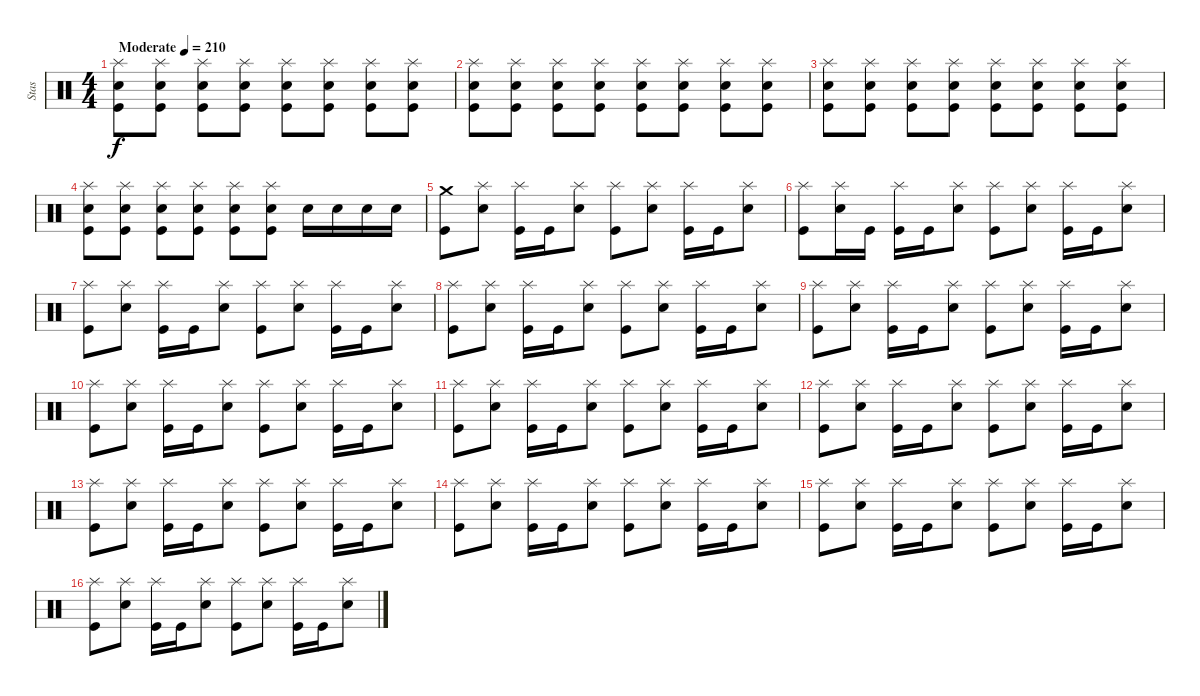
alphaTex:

\track ("Stas" "Stas") {instrument percussion}
\staff {score}
\articulation defaults
\ts (4 4)
\tempo (210 "Moderate")
\clef neutral
\ks c
("Kick (hit)" "Electric Snare (hit)" "Splash (hit)").8{dy f} ("Kick (hit)" "Electric Snare (hit)" "Splash (hit)").8 ("Kick (hit)" "Electric Snare (hit)" "Splash (hit)").8 ("Kick (hit)" "Electric Snare (hit)" "Splash (hit)").8 ("Kick (hit)" "Electric Snare (hit)" "Splash (hit)").8 ("Kick (hit)" "Electric Snare (hit)" "Splash (hit)").8 ("Kick (hit)" "Electric Snare (hit)" "Splash (hit)").8 ("Kick (hit)" "Electric Snare (hit)" "Splash (hit)").8 |
("Kick (hit)" "Electric Snare (hit)" "Splash (hit)").8 ("Kick (hit)" "Electric Snare (hit)" "Splash (hit)").8 ("Kick (hit)" "Electric Snare (hit)" "Splash (hit)").8 ("Kick (hit)" "Electric Snare (hit)" "Splash (hit)").8 ("Kick (hit)" "Electric Snare (hit)" "Splash (hit)").8 ("Kick (hit)" "Electric Snare (hit)" "Splash (hit)").8 ("Kick (hit)" "Electric Snare (hit)" "Splash (hit)").8 ("Kick (hit)" "Electric Snare (hit)" "Splash (hit)").8 |
("Kick (hit)" "Electric Snare (hit)" "Splash (hit)").8 ("Kick (hit)" "Electric Snare (hit)" "Splash (hit)").8 ("Kick (hit)" "Electric Snare (hit)" "Splash (hit)").8 ("Kick (hit)" "Electric Snare (hit)" "Splash (hit)").8 ("Kick (hit)" "Electric Snare (hit)" "Splash (hit)").8 ("Kick (hit)" "Electric Snare (hit)" "Splash (hit)").8 ("Kick (hit)" "Electric Snare (hit)" "Splash (hit)").8 ("Kick (hit)" "Electric Snare (hit)" "Splash (hit)").8 |
("Kick (hit)" "Electric Snare (hit)" "Splash (hit)").8 ("Kick (hit)" "Electric Snare (hit)" "Splash (hit)").8 ("Kick (hit)" "Electric Snare (hit)" "Splash (hit)").8 ("Kick (hit)" "Electric Snare (hit)" "Splash (hit)").8 ("Kick (hit)" "Electric Snare (hit)" "Splash (hit)").8 ("Kick (hit)" "Electric Snare (hit)" "Splash (hit)").8 "Electric Snare (hit)".16 "Electric Snare (hit)".16 "Electric Snare (hit)".16 "Electric Snare (hit)".16 |
("Crash medium (hit)" "Kick (hit)").8 ("Splash (hit)" "Electric Snare (hit)").8 ("Splash (hit)" "Kick (hit)").16 "Kick (hit)".16 ("Splash (hit)" "Electric Snare (hit)").8 ("Splash (hit)" "Kick (hit)").8 ("Splash (hit)" "Electric Snare (hit)").8 ("Splash (hit)" "Kick (hit)").16 "Kick (hit)".16 ("Splash (hit)" "Electric Snare (hit)").8 |
("Splash (hit)" "Kick (hit)").8 ("Splash (hit)" "Electric Snare (hit)").16 "Kick (hit)".16 ("Splash (hit)" "Kick (hit)").16 "Kick (hit)".16 ("Splash (hit)" "Electric Snare (hit)").8 ("Splash (hit)" "Kick (hit)").8 ("Splash (hit)" "Electric Snare (hit)").8 ("Splash (hit)" "Kick (hit)").16 "Kick (hit)".16 ("Splash (hit)" "Electric Snare (hit)").8 |
("Splash (hit)" "Kick (hit)").8 ("Splash (hit)" "Electric Snare (hit)").8 ("Splash (hit)" "Kick (hit)").16 "Kick (hit)".16 ("Splash (hit)" "Electric Snare (hit)").8 ("Splash (hit)" "Kick (hit)").8 ("Splash (hit)" "Electric Snare (hit)").8 ("Splash (hit)" "Kick (hit)").16 "Kick (hit)".16 ("Splash (hit)" "Electric Snare (hit)").8 |
("Splash (hit)" "Kick (hit)").8 ("Splash (hit)" "Electric Snare (hit)").8 ("Splash (hit)" "Kick (hit)").16 "Kick (hit)".16 ("Splash (hit)" "Electric Snare (hit)").8 ("Splash (hit)" "Kick (hit)").8 ("Splash (hit)" "Electric Snare (hit)").8 ("Splash (hit)" "Kick (hit)").16 "Kick (hit)".16 ("Splash (hit)" "Electric Snare (hit)").8 |
("Splash (hit)" "Kick (hit)").8 ("Splash (hit)" "Electric Snare (hit)").8 ("Splash (hit)" "Kick (hit)").16 "Kick (hit)".16 ("Splash (hit)" "Electric Snare (hit)").8 ("Splash (hit)" "Kick (hit)").8 ("Splash (hit)" "Electric Snare (hit)").8 ("Splash (hit)" "Kick (hit)").16 "Kick (hit)".16 ("Splash (hit)" "Electric Snare (hit)").8 |
("Splash (hit)" "Kick (hit)").8 ("Splash (hit)" "Electric Snare (hit)").8 ("Splash (hit)" "Kick (hit)").16 "Kick (hit)".16 ("Splash (hit)" "Electric Snare (hit)").8 ("Splash (hit)" "Kick (hit)").8 ("Splash (hit)" "Electric Snare (hit)").8 ("Splash (hit)" "Kick (hit)").16 "Kick (hit)".16 ("Splash (hit)" "Electric Snare (hit)").8 |
("Splash (hit)" "Kick (hit)").8 ("Splash (hit)" "Electric Snare (hit)").8 ("Splash (hit)" "Kick (hit)").16 "Kick (hit)".16 ("Splash (hit)" "Electric Snare (hit)").8 ("Splash (hit)" "Kick (hit)").8 ("Splash (hit)" "Electric Snare (hit)").8 ("Splash (hit)" "Kick (hit)").16 "Kick (hit)".16 ("Splash (hit)" "Electric Snare (hit)").8 |
("Splash (hit)" "Kick (hit)").8 ("Splash (hit)" "Electric Snare (hit)").8 ("Splash (hit)" "Kick (hit)").16 "Kick (hit)".16 ("Splash (hit)" "Electric Snare (hit)").8 ("Splash (hit)" "Kick (hit)").8 ("Splash (hit)" "Electric Snare (hit)").8 ("Splash (hit)" "Kick (hit)").16 "Kick (hit)".16 ("Splash (hit)" "Electric Snare (hit)").8 |
("Splash (hit)" "Kick (hit)").8 ("Splash (hit)" "Electric Snare (hit)").8 ("Splash (hit)" "Kick (hit)").16 "Kick (hit)".16 ("Splash (hit)" "Electric Snare (hit)").8 ("Splash (hit)" "Kick (hit)").8 ("Splash (hit)" "Electric Snare (hit)").8 ("Splash (hit)" "Kick (hit)").16 "Kick (hit)".16 ("Splash (hit)" "Electric Snare (hit)").8 |
("Splash (hit)" "Kick (hit)").8 ("Splash (hit)" "Electric Snare (hit)").8 ("Splash (hit)" "Kick (hit)").16 "Kick (hit)".16 ("Splash (hit)" "Electric Snare (hit)").8 ("Splash (hit)" "Kick (hit)").8 ("Splash (hit)" "Electric Snare (hit)").8 ("Splash (hit)" "Kick (hit)").16 "Kick (hit)".16 ("Splash (hit)" "Electric Snare (hit)").8 |
("Splash (hit)" "Kick (hit)").8 ("Splash (hit)" "Electric Snare (hit)").8 ("Splash (hit)" "Kick (hit)").16 "Kick (hit)".16 ("Splash (hit)" "Electric Snare (hit)").8 ("Splash (hit)" "Kick (hit)").8 ("Splash (hit)" "Electric Snare (hit)").8 ("Splash (hit)" "Kick (hit)").16 "Kick (hit)".16 ("Splash (hit)" "Electric Snare (hit)").8 |
("Splash (hit)" "Kick (hit)").8 ("Splash (hit)" "Electric Snare (hit)").8 ("Splash (hit)" "Kick (hit)").16 "Kick (hit)".16 ("Splash (hit)" "Electric Snare (hit)").8 ("Splash (hit)" "Kick (hit)").8 ("Splash (hit)" "Electric Snare (hit)").8 ("Splash (hit)" "Kick (hit)").16 "Kick (hit)".16 ("Splash (hit)" "Electric Snare (hit)").8
